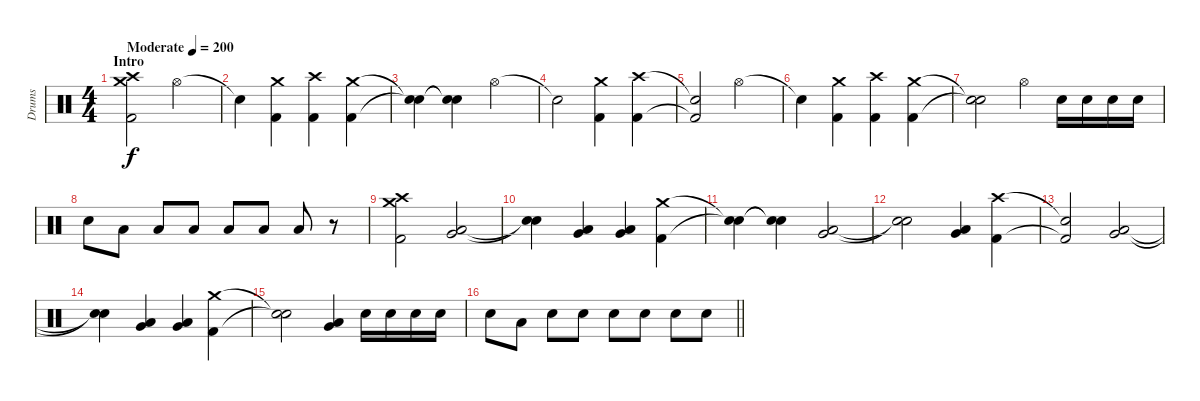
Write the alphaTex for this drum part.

\track ("Drums" "Drums") {instrument percussion}
\staff {score}
\articulation defaults
\ts (4 4)
\section ("" "Intro")
\tempo (200 "Moderate")
\clef neutral
\ks c
("Crash medium (hit)" "Crash high (hit)" "Kick (hit) 2").2{dy f} "Hi-Hat (open)".2 |
"Snare (hit)"{t}.4 ("Crash medium (hit)" "Kick (hit) 2").4 ("Crash high (hit)" "Kick (hit) 2").4 ("Crash medium (hit)" "Kick (hit) 2").4 |
("Snare (hit)"{t} "Snare (hit)"{t}).4 ("Snare (hit)"{t} "Snare (hit)"{t}).4 "Hi-Hat (open)".2 |
"Snare (hit)"{t}.2 ("Crash medium (hit)" "Kick (hit) 2").4 ("Crash high (hit)" "Kick (hit) 2").4 |
("Snare (hit)"{t} "Kick (hit) 2"{t}).2 "Hi-Hat (open)".2 |
"Snare (hit)"{t}.4 ("Crash medium (hit)" "Kick (hit) 2").4 ("Crash high (hit)" "Kick (hit) 2").4 ("Crash medium (hit)" "Kick (hit) 2").4 |
("Snare (hit)"{t} "Snare (hit)"{t}).2 "Hi-Hat (open)".4 "Electric Snare (hit)".16 "Electric Snare (hit)".16 "Electric Snare (hit)".16 "Electric Snare (hit)".16 |
"Electric Snare (hit)".8 "Low Tom (hit)".8 "Low Tom (hit)".8 "Low Tom (hit)".8 "Low Tom (hit)".8 "Low Tom (hit)".8 "Low Tom (hit)".8 r.8 |
("Crash medium (hit)" "Crash high (hit)" "Kick (hit) 2").2 ("Very Low Tom (hit)" "Low Tom (hit)").2 |
("Snare (hit)"{t} "Snare (hit)"{t}).4 ("Very Low Tom (hit)" "Low Tom (hit)").4 ("Very Low Tom (hit)" "Low Tom (hit)").4 ("Crash medium (hit)" "Kick (hit) 2").4 |
("Snare (hit)"{t} "Snare (hit)"{t}).4 ("Snare (hit)"{t} "Snare (hit)"{t}).4 ("Very Low Tom (hit)" "Low Tom (hit)").2 |
("Snare (hit)"{t} "Snare (hit)"{t}).2 ("Very Low Tom (hit)" "Low Tom (hit)").4 ("Crash high (hit)" "Kick (hit) 2").4 |
("Snare (hit)"{t} "Kick (hit) 2"{t}).2 ("Very Low Tom (hit)" "Low Tom (hit)").2 |
("Snare (hit)"{t} "Snare (hit)"{t}).4 ("Very Low Tom (hit)" "Low Tom (hit)").4 ("Very Low Tom (hit)" "Low Tom (hit)").4 ("Crash medium (hit)" "Kick (hit) 2").4 |
("Snare (hit)"{t} "Snare (hit)"{t}).2 ("Very Low Tom (hit)" "Low Tom (hit)").4 "Electric Snare (hit)".16 "Electric Snare (hit)".16 "Electric Snare (hit)".16 "Electric Snare (hit)".16 |
\barLineRight lightlight "Electric Snare (hit)".8 "Low Tom (hit)".8 "Electric Snare (hit)".8 "Electric Snare (hit)".8 "Electric Snare (hit)".8 "Electric Snare (hit)".8 "Electric Snare (hit)".8 "Electric Snare (hit)".8
